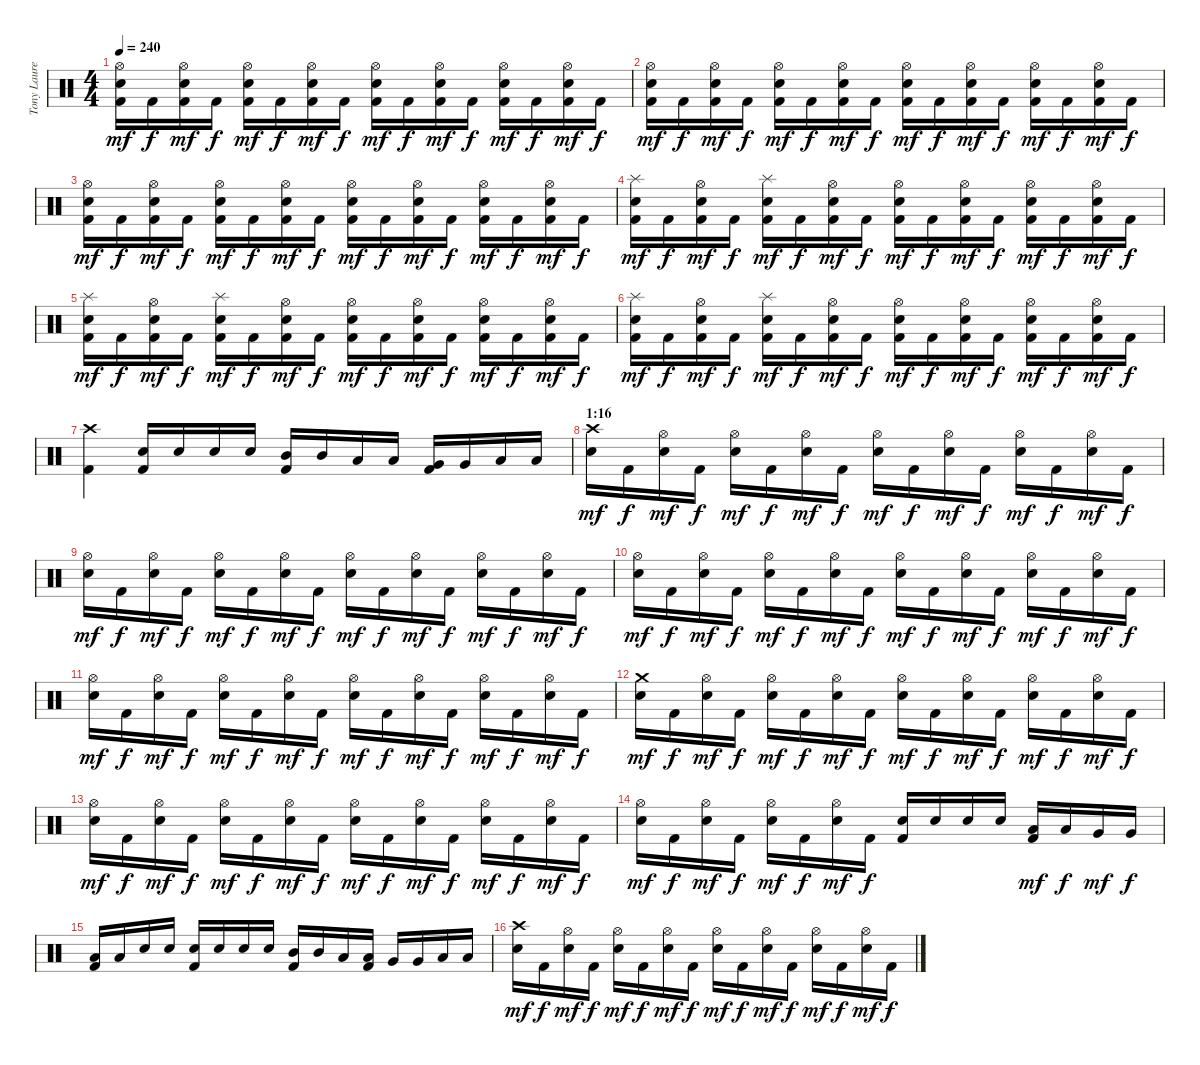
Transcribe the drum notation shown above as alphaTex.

\track ("Tony Laureano" "Tony Laure") {instrument percussion}
\staff {score}
\articulation defaults
\ts (4 4)
\tempo 240
\clef neutral
\ks c
("Hi-Hat (open)" "Electric Snare (hit)" "Kick (hit) 2").16{dy mf} "Kick (hit) 2".16{dy f} ("Hi-Hat (open)" "Electric Snare (hit)" "Kick (hit) 2").16{dy mf} "Kick (hit) 2".16{dy f} ("Hi-Hat (open)" "Electric Snare (hit)" "Kick (hit) 2").16{dy mf} "Kick (hit) 2".16{dy f} ("Hi-Hat (open)" "Electric Snare (hit)" "Kick (hit) 2").16{dy mf} "Kick (hit) 2".16{dy f} ("Hi-Hat (open)" "Electric Snare (hit)" "Kick (hit) 2").16{dy mf} "Kick (hit) 2".16{dy f} ("Hi-Hat (open)" "Electric Snare (hit)" "Kick (hit) 2").16{dy mf} "Kick (hit) 2".16{dy f} ("Hi-Hat (open)" "Electric Snare (hit)" "Kick (hit) 2").16{dy mf} "Kick (hit) 2".16{dy f} ("Hi-Hat (open)" "Electric Snare (hit)" "Kick (hit) 2").16{dy mf} "Kick (hit) 2".16{dy f} |
("Hi-Hat (open)" "Electric Snare (hit)" "Kick (hit) 2").16{dy mf} "Kick (hit) 2".16{dy f} ("Hi-Hat (open)" "Electric Snare (hit)" "Kick (hit) 2").16{dy mf} "Kick (hit) 2".16{dy f} ("Hi-Hat (open)" "Electric Snare (hit)" "Kick (hit) 2").16{dy mf} "Kick (hit) 2".16{dy f} ("Hi-Hat (open)" "Electric Snare (hit)" "Kick (hit) 2").16{dy mf} "Kick (hit) 2".16{dy f} ("Hi-Hat (open)" "Electric Snare (hit)" "Kick (hit) 2").16{dy mf} "Kick (hit) 2".16{dy f} ("Hi-Hat (open)" "Electric Snare (hit)" "Kick (hit) 2").16{dy mf} "Kick (hit) 2".16{dy f} ("Hi-Hat (open)" "Electric Snare (hit)" "Kick (hit) 2").16{dy mf} "Kick (hit) 2".16{dy f} ("Hi-Hat (open)" "Electric Snare (hit)" "Kick (hit) 2").16{dy mf} "Kick (hit) 2".16{dy f} |
("Hi-Hat (open)" "Electric Snare (hit)" "Kick (hit) 2").16{dy mf} "Kick (hit) 2".16{dy f} ("Hi-Hat (open)" "Electric Snare (hit)" "Kick (hit) 2").16{dy mf} "Kick (hit) 2".16{dy f} ("Hi-Hat (open)" "Electric Snare (hit)" "Kick (hit) 2").16{dy mf} "Kick (hit) 2".16{dy f} ("Hi-Hat (open)" "Electric Snare (hit)" "Kick (hit) 2").16{dy mf} "Kick (hit) 2".16{dy f} ("Hi-Hat (open)" "Electric Snare (hit)" "Kick (hit) 2").16{dy mf} "Kick (hit) 2".16{dy f} ("Hi-Hat (open)" "Electric Snare (hit)" "Kick (hit) 2").16{dy mf} "Kick (hit) 2".16{dy f} ("Hi-Hat (open)" "Electric Snare (hit)" "Kick (hit) 2").16{dy mf} "Kick (hit) 2".16{dy f} ("Hi-Hat (open)" "Electric Snare (hit)" "Kick (hit) 2").16{dy mf} "Kick (hit) 2".16{dy f} |
("Splash (hit)" "Electric Snare (hit)" "Kick (hit) 2").16{dy mf} "Kick (hit) 2".16{dy f} ("Hi-Hat (open)" "Electric Snare (hit)" "Kick (hit) 2").16{dy mf} "Kick (hit) 2".16{dy f} ("Splash (hit)" "Electric Snare (hit)" "Kick (hit) 2").16{dy mf} "Kick (hit) 2".16{dy f} ("Hi-Hat (open)" "Electric Snare (hit)" "Kick (hit) 2").16{dy mf} "Kick (hit) 2".16{dy f} ("Hi-Hat (open)" "Electric Snare (hit)" "Kick (hit) 2").16{dy mf} "Kick (hit) 2".16{dy f} ("Hi-Hat (open)" "Electric Snare (hit)" "Kick (hit) 2").16{dy mf} "Kick (hit) 2".16{dy f} ("Hi-Hat (open)" "Electric Snare (hit)" "Kick (hit) 2").16{dy mf} "Kick (hit) 2".16{dy f} ("Hi-Hat (open)" "Electric Snare (hit)" "Kick (hit) 2").16{dy mf} "Kick (hit) 2".16{dy f} |
("Splash (hit)" "Electric Snare (hit)" "Kick (hit) 2").16{dy mf} "Kick (hit) 2".16{dy f} ("Hi-Hat (open)" "Electric Snare (hit)" "Kick (hit) 2").16{dy mf} "Kick (hit) 2".16{dy f} ("Splash (hit)" "Electric Snare (hit)" "Kick (hit) 2").16{dy mf} "Kick (hit) 2".16{dy f} ("Hi-Hat (open)" "Electric Snare (hit)" "Kick (hit) 2").16{dy mf} "Kick (hit) 2".16{dy f} ("Hi-Hat (open)" "Electric Snare (hit)" "Kick (hit) 2").16{dy mf} "Kick (hit) 2".16{dy f} ("Hi-Hat (open)" "Electric Snare (hit)" "Kick (hit) 2").16{dy mf} "Kick (hit) 2".16{dy f} ("Hi-Hat (open)" "Electric Snare (hit)" "Kick (hit) 2").16{dy mf} "Kick (hit) 2".16{dy f} ("Hi-Hat (open)" "Electric Snare (hit)" "Kick (hit) 2").16{dy mf} "Kick (hit) 2".16{dy f} |
("Splash (hit)" "Electric Snare (hit)" "Kick (hit) 2").16{dy mf} "Kick (hit) 2".16{dy f} ("Hi-Hat (open)" "Electric Snare (hit)" "Kick (hit) 2").16{dy mf} "Kick (hit) 2".16{dy f} ("Splash (hit)" "Electric Snare (hit)" "Kick (hit) 2").16{dy mf} "Kick (hit) 2".16{dy f} ("Hi-Hat (open)" "Electric Snare (hit)" "Kick (hit) 2").16{dy mf} "Kick (hit) 2".16{dy f} ("Hi-Hat (open)" "Electric Snare (hit)" "Kick (hit) 2").16{dy mf} "Kick (hit) 2".16{dy f} ("Hi-Hat (open)" "Electric Snare (hit)" "Kick (hit) 2").16{dy mf} "Kick (hit) 2".16{dy f} ("Hi-Hat (open)" "Electric Snare (hit)" "Kick (hit) 2").16{dy mf} "Kick (hit) 2".16{dy f} ("Hi-Hat (open)" "Electric Snare (hit)" "Kick (hit) 2").16{dy mf} "Kick (hit) 2".16{dy f} |
("Crash high (hit)" "Kick (hit) 2").4 ("Electric Snare (hit)" "Kick (hit) 2").16 "Electric Snare (hit)".16 "Electric Snare (hit)".16 "Electric Snare (hit)".16 ("Mid Tom (hit)" "Kick (hit) 2").16 "Mid Tom (hit)".16 "Low Tom (hit)".16 "Low Tom (hit)".16 ("Very Low Tom (hit)" "Kick (hit) 2").16 "Very Low Tom (hit)".16 "Low Floor Tom (hit)".16 "Low Floor Tom (hit)".16 |
\section ("" "1:16")
("Crash high (hit)" "Electric Snare (hit)").16{dy mf} "Kick (hit) 2".16{dy f} ("Hi-Hat (open)" "Electric Snare (hit)").16{dy mf} "Kick (hit) 2".16{dy f} ("Hi-Hat (open)" "Electric Snare (hit)").16{dy mf} "Kick (hit) 2".16{dy f} ("Hi-Hat (open)" "Electric Snare (hit)").16{dy mf} "Kick (hit) 2".16{dy f} ("Hi-Hat (open)" "Electric Snare (hit)").16{dy mf} "Kick (hit) 2".16{dy f} ("Hi-Hat (open)" "Electric Snare (hit)").16{dy mf} "Kick (hit) 2".16{dy f} ("Hi-Hat (open)" "Electric Snare (hit)").16{dy mf} "Kick (hit) 2".16{dy f} ("Hi-Hat (open)" "Electric Snare (hit)").16{dy mf} "Kick (hit) 2".16{dy f} |
("Hi-Hat (open)" "Electric Snare (hit)").16{dy mf} "Kick (hit) 2".16{dy f} ("Hi-Hat (open)" "Electric Snare (hit)").16{dy mf} "Kick (hit) 2".16{dy f} ("Hi-Hat (open)" "Electric Snare (hit)").16{dy mf} "Kick (hit) 2".16{dy f} ("Hi-Hat (open)" "Electric Snare (hit)").16{dy mf} "Kick (hit) 2".16{dy f} ("Hi-Hat (open)" "Electric Snare (hit)").16{dy mf} "Kick (hit) 2".16{dy f} ("Hi-Hat (open)" "Electric Snare (hit)").16{dy mf} "Kick (hit) 2".16{dy f} ("Hi-Hat (open)" "Electric Snare (hit)").16{dy mf} "Kick (hit) 2".16{dy f} ("Hi-Hat (open)" "Electric Snare (hit)").16{dy mf} "Kick (hit) 2".16{dy f} |
("Hi-Hat (open)" "Electric Snare (hit)").16{dy mf} "Kick (hit) 2".16{dy f} ("Hi-Hat (open)" "Electric Snare (hit)").16{dy mf} "Kick (hit) 2".16{dy f} ("Hi-Hat (open)" "Electric Snare (hit)").16{dy mf} "Kick (hit) 2".16{dy f} ("Hi-Hat (open)" "Electric Snare (hit)").16{dy mf} "Kick (hit) 2".16{dy f} ("Hi-Hat (open)" "Electric Snare (hit)").16{dy mf} "Kick (hit) 2".16{dy f} ("Hi-Hat (open)" "Electric Snare (hit)").16{dy mf} "Kick (hit) 2".16{dy f} ("Hi-Hat (open)" "Electric Snare (hit)").16{dy mf} "Kick (hit) 2".16{dy f} ("Hi-Hat (open)" "Electric Snare (hit)").16{dy mf} "Kick (hit) 2".16{dy f} |
("Hi-Hat (open)" "Electric Snare (hit)").16{dy mf} "Kick (hit) 2".16{dy f} ("Hi-Hat (open)" "Electric Snare (hit)").16{dy mf} "Kick (hit) 2".16{dy f} ("Hi-Hat (open)" "Electric Snare (hit)").16{dy mf} "Kick (hit) 2".16{dy f} ("Hi-Hat (open)" "Electric Snare (hit)").16{dy mf} "Kick (hit) 2".16{dy f} ("Hi-Hat (open)" "Electric Snare (hit)").16{dy mf} "Kick (hit) 2".16{dy f} ("Hi-Hat (open)" "Electric Snare (hit)").16{dy mf} "Kick (hit) 2".16{dy f} ("Hi-Hat (open)" "Electric Snare (hit)").16{dy mf} "Kick (hit) 2".16{dy f} ("Hi-Hat (open)" "Electric Snare (hit)").16{dy mf} "Kick (hit) 2".16{dy f} |
("Crash medium (hit)" "Electric Snare (hit)").16{dy mf} "Kick (hit) 2".16{dy f} ("Hi-Hat (open)" "Electric Snare (hit)").16{dy mf} "Kick (hit) 2".16{dy f} ("Hi-Hat (open)" "Electric Snare (hit)").16{dy mf} "Kick (hit) 2".16{dy f} ("Hi-Hat (open)" "Electric Snare (hit)").16{dy mf} "Kick (hit) 2".16{dy f} ("Hi-Hat (open)" "Electric Snare (hit)").16{dy mf} "Kick (hit) 2".16{dy f} ("Hi-Hat (open)" "Electric Snare (hit)").16{dy mf} "Kick (hit) 2".16{dy f} ("Hi-Hat (open)" "Electric Snare (hit)").16{dy mf} "Kick (hit) 2".16{dy f} ("Hi-Hat (open)" "Electric Snare (hit)").16{dy mf} "Kick (hit) 2".16{dy f} |
("Hi-Hat (open)" "Electric Snare (hit)").16{dy mf} "Kick (hit) 2".16{dy f} ("Hi-Hat (open)" "Electric Snare (hit)").16{dy mf} "Kick (hit) 2".16{dy f} ("Hi-Hat (open)" "Electric Snare (hit)").16{dy mf} "Kick (hit) 2".16{dy f} ("Hi-Hat (open)" "Electric Snare (hit)").16{dy mf} "Kick (hit) 2".16{dy f} ("Hi-Hat (open)" "Electric Snare (hit)").16{dy mf} "Kick (hit) 2".16{dy f} ("Hi-Hat (open)" "Electric Snare (hit)").16{dy mf} "Kick (hit) 2".16{dy f} ("Hi-Hat (open)" "Electric Snare (hit)").16{dy mf} "Kick (hit) 2".16{dy f} ("Hi-Hat (open)" "Electric Snare (hit)").16{dy mf} "Kick (hit) 2".16{dy f} |
("Hi-Hat (open)" "Electric Snare (hit)").16{dy mf} "Kick (hit) 2".16{dy f} ("Hi-Hat (open)" "Electric Snare (hit)").16{dy mf} "Kick (hit) 2".16{dy f} ("Hi-Hat (open)" "Electric Snare (hit)").16{dy mf} "Kick (hit) 2".16{dy f} ("Hi-Hat (open)" "Electric Snare (hit)").16{dy mf} "Kick (hit) 2".16{dy f} ("Electric Snare (hit)" "Kick (hit) 2").16 "Electric Snare (hit)".16 "Electric Snare (hit)".16 "Electric Snare (hit)".16 ("Low Tom (hit)" "Kick (hit) 2").16{dy mf} "Low Tom (hit)".16{dy f} "Very Low Tom (hit)".16{dy mf} "Very Low Tom (hit)".16{dy f} |
("Low Floor Tom (hit)" "Kick (hit) 2").16 "Low Floor Tom (hit)".16 "Electric Snare (hit)".16 "Electric Snare (hit)".16 ("Electric Snare (hit)" "Kick (hit) 2").16 "Electric Snare (hit)".16 "Electric Snare (hit)".16 "Electric Snare (hit)".16 ("Mid Tom (hit)" "Kick (hit) 2").16 "Mid Tom (hit)".16 "Low Tom (hit)".16 ("Low Tom (hit)" "Kick (hit) 2").16 "Very Low Tom (hit)".16 "Very Low Tom (hit)".16 "Low Floor Tom (hit)".16 "Low Floor Tom (hit)".16 |
("Crash high (hit)" "Electric Snare (hit)").16{dy mf} "Kick (hit) 2".16{dy f} ("Hi-Hat (open)" "Electric Snare (hit)").16{dy mf} "Kick (hit) 2".16{dy f} ("Hi-Hat (open)" "Electric Snare (hit)").16{dy mf} "Kick (hit) 2".16{dy f} ("Hi-Hat (open)" "Electric Snare (hit)").16{dy mf} "Kick (hit) 2".16{dy f} ("Hi-Hat (open)" "Electric Snare (hit)").16{dy mf} "Kick (hit) 2".16{dy f} ("Hi-Hat (open)" "Electric Snare (hit)").16{dy mf} "Kick (hit) 2".16{dy f} ("Hi-Hat (open)" "Electric Snare (hit)").16{dy mf} "Kick (hit) 2".16{dy f} ("Hi-Hat (open)" "Electric Snare (hit)").16{dy mf} "Kick (hit) 2".16{dy f}
